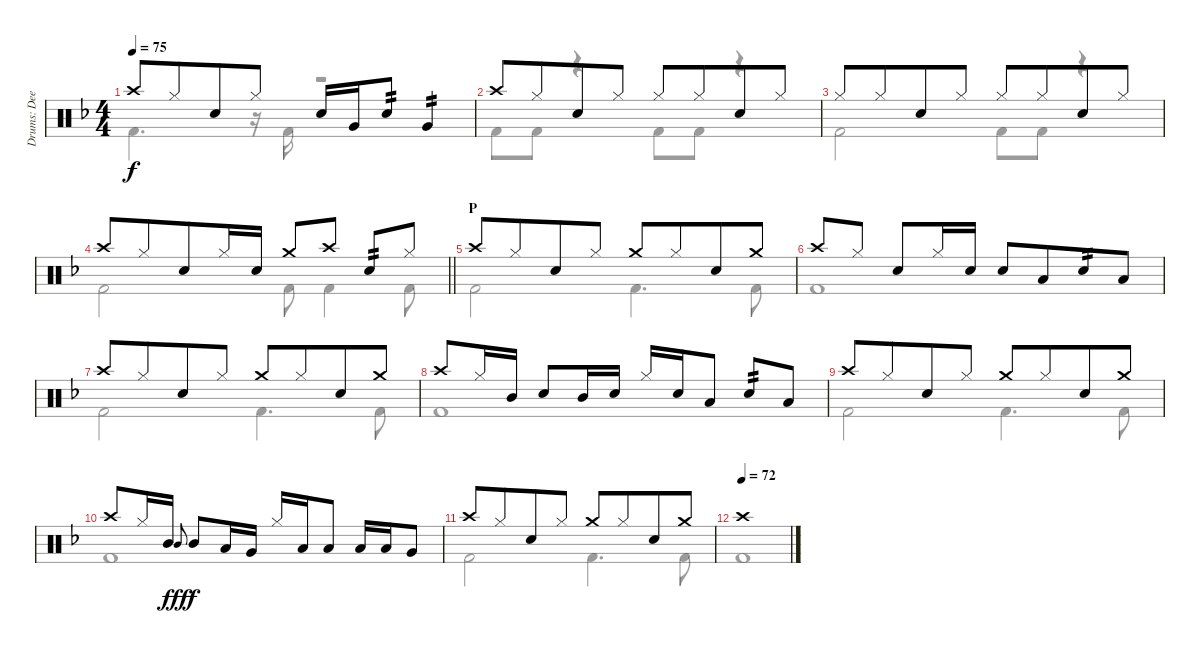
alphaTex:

\track ("Drums: Deen" "Drums: Dee") {instrument percussion}
\staff {score}
\articulation defaults
\voice
\ts (4 4)
\tempo 75
\clef neutral
\ks f "Crash high (hit)".8{dy f} "Hi-Hat (closed)".8{beam merge} "Snare (hit) 2".8 "Hi-Hat (closed)".8 "Snare (hit) 2".16 "Very Low Tom (hit)".16 "Snare (hit) 2".8{tp 2} "Very Low Tom (hit)".4{tp 2}
|
"Crash high (hit)".8 "Hi-Hat (closed)".8{beam merge} "Snare (hit) 2".8 "Hi-Hat (closed)".8 "Hi-Hat (closed)".8 "Hi-Hat (closed)".8{beam merge} "Snare (hit) 2".8 "Hi-Hat (closed)".8 |
"Hi-Hat (closed)".8 "Hi-Hat (closed)".8{beam merge} "Snare (hit) 2".8 "Hi-Hat (closed)".8 "Hi-Hat (closed)".8 "Hi-Hat (closed)".8{beam merge} "Snare (hit) 2".8 "Hi-Hat (closed)".8 |
\barLineRight lightlight "Crash high (hit)".8 "Hi-Hat (closed)".8{beam merge} "Snare (hit) 2".8 "Hi-Hat (closed)".16 "Snare (hit) 2".16 "Crash medium (hit)".8 "Crash high (hit)".8 "Snare (hit) 2".8{tp 2} "Hi-Hat (closed)".8
|
\section ("" "P")
"Crash high (hit)".8 "Hi-Hat (closed)".8{beam merge} "Snare (hit) 2".8 "Hi-Hat (closed)".8 "Crash medium (hit)".8 "Hi-Hat (closed)".8{beam merge} "Snare (hit) 2".8 "Crash medium (hit)".8 |
"Crash high (hit)".8 "Hi-Hat (closed)".8 "Snare (hit) 2".8 "Hi-Hat (closed)".16 "Snare (hit) 2".16 "Snare (hit) 2".8 "Low Tom (hit)".8{beam merge} "Snare (hit) 2".8{tp 2} "Low Tom (hit)".8 |
"Crash high (hit)".8 "Hi-Hat (closed)".8{beam merge} "Snare (hit) 2".8 "Hi-Hat (closed)".8 "Crash medium (hit)".8 "Hi-Hat (closed)".8{beam merge} "Snare (hit) 2".8 "Crash medium (hit)".8 |
"Crash high (hit)".8 "Hi-Hat (closed)".16 "Mid Tom (hit)".16 "Snare (hit) 2".8 "Mid Tom (hit)".16 "Snare (hit) 2".16 "Hi-Hat (closed)".16{beam merge} "Snare (hit) 2".16 "Low Tom (hit)".8 "Snare (hit) 2".8{tp 2} "Low Tom (hit)".8 |
"Crash high (hit)".8 "Hi-Hat (closed)".8{beam merge} "Snare (hit) 2".8 "Hi-Hat (closed)".8 "Crash medium (hit)".8 "Hi-Hat (closed)".8{beam merge} "Snare (hit) 2".8 "Crash medium (hit)".8 |
"Crash high (hit)".8 "Hi-Hat (closed)".16 "Mid Tom (hit)".16 "Mid Tom (hit)".8{gr onbeat dy fff} "Mid Tom (hit)".8{dy f} "Low Tom (hit)".16 "Very Low Tom (hit)".16 "Hi-Hat (closed)".16{beam merge} "Low Tom (hit)".16 "Low Tom (hit)".8 "Low Tom (hit)".16 "Low Tom (hit)".16 "Very Low Tom (hit)".8 |
"Crash high (hit)".8 "Hi-Hat (closed)".8{beam merge} "Snare (hit) 2".8 "Hi-Hat (closed)".8 "Crash medium (hit)".8 "Hi-Hat (closed)".8{beam merge} "Snare (hit) 2".8 "Crash medium (hit)".8 |
\tempo (72)
"Crash high (hit)".1 |
|
|
|
\voice
\clef neutral
\ottava regular
\simile none
\ks f "Kick (hit) 2".4{d dy f}
r.16 "Kick (hit) 2".16 r.2 |
"Kick (hit) 2".8 "Kick (hit) 2".8 r.4 "Kick (hit) 2".8 "Kick (hit) 2".8 r.4 |
"Kick (hit) 2".2 "Kick (hit) 2".8 "Kick (hit) 2".8 r.4 |
\barLineRight lightlight "Kick (hit) 2".2 "Kick (hit) 2".8 "Kick (hit) 2".4 "Kick (hit) 2".8
|
"Kick (hit) 2".2 "Kick (hit) 2".4{d} "Kick (hit) 2".8 |
"Kick (hit) 2".1 |
"Kick (hit) 2".2 "Kick (hit) 2".4{d} "Kick (hit) 2".8 |
"Kick (hit) 2".1 |
"Kick (hit) 2".2 "Kick (hit) 2".4{d} "Kick (hit) 2".8 |
"Kick (hit) 2".1 |
"Kick (hit) 2".2 "Kick (hit) 2".4{d} "Kick (hit) 2".8 |
"Kick (hit) 2".1 |
|
|
|
